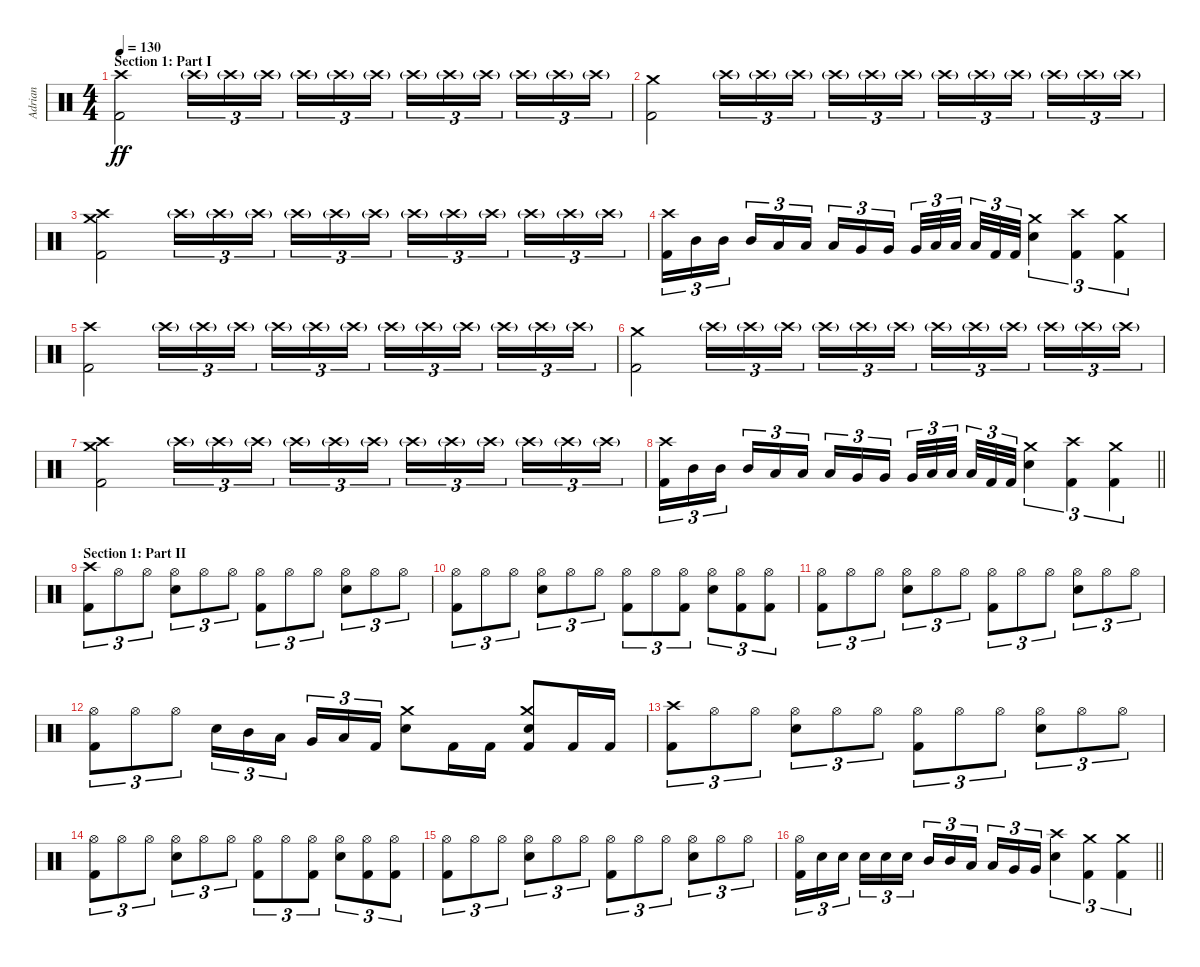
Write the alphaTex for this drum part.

\track ("Adrian" "Adrian") {instrument percussion}
\staff {score}
\articulation defaults
\ts (4 4)
\section ("" "Section 1: Part I")
\tempo 130
\clef neutral
\ks c
("Crash high (hit)" "Kick (hit) 2").2{dy ff} "Crash high (hit)"{g}.16{tu (3 2)} "Crash high (hit)"{g}.16{tu (3 2)} "Crash high (hit)"{g}.16{tu (3 2) beam splitsecondary} "Crash high (hit)"{g}.16{tu (3 2)} "Crash high (hit)"{g}.16{tu (3 2)} "Crash high (hit)"{g}.16{tu (3 2)} "Crash high (hit)"{g}.16{tu (3 2)} "Crash high (hit)"{g}.16{tu (3 2)} "Crash high (hit)"{g}.16{tu (3 2) beam splitsecondary} "Crash high (hit)"{g}.16{tu (3 2)} "Crash high (hit)"{g}.16{tu (3 2)} "Crash high (hit)"{g}.16{tu (3 2)} |
("Crash medium (hit)" "Kick (hit) 2").2 "Crash high (hit)"{g}.16{tu (3 2)} "Crash high (hit)"{g}.16{tu (3 2)} "Crash high (hit)"{g}.16{tu (3 2) beam splitsecondary} "Crash high (hit)"{g}.16{tu (3 2)} "Crash high (hit)"{g}.16{tu (3 2)} "Crash high (hit)"{g}.16{tu (3 2)} "Crash high (hit)"{g}.16{tu (3 2)} "Crash high (hit)"{g}.16{tu (3 2)} "Crash high (hit)"{g}.16{tu (3 2) beam splitsecondary} "Crash high (hit)"{g}.16{tu (3 2)} "Crash high (hit)"{g}.16{tu (3 2)} "Crash high (hit)"{g}.16{tu (3 2)} |
("Crash high (hit)" "Crash medium (hit)" "Kick (hit) 2").2 "Crash high (hit)"{g}.16{tu (3 2)} "Crash high (hit)"{g}.16{tu (3 2)} "Crash high (hit)"{g}.16{tu (3 2) beam splitsecondary} "Crash high (hit)"{g}.16{tu (3 2)} "Crash high (hit)"{g}.16{tu (3 2)} "Crash high (hit)"{g}.16{tu (3 2)} "Crash high (hit)"{g}.16{tu (3 2)} "Crash high (hit)"{g}.16{tu (3 2)} "Crash high (hit)"{g}.16{tu (3 2) beam splitsecondary} "Crash high (hit)"{g}.16{tu (3 2)} "Crash high (hit)"{g}.16{tu (3 2)} "Crash high (hit)"{g}.16{tu (3 2)} |
("Crash high (hit)" "Kick (hit) 2").16{tu (3 2)} "Mid Tom (hit)".16{tu (3 2)} "Mid Tom (hit)".16{tu (3 2) beam splitsecondary} "Mid Tom (hit)".16{tu (3 2)} "Low Tom (hit)".16{tu (3 2)} "Low Tom (hit)".16{tu (3 2)} "Low Tom (hit)".16{tu (3 2)} "Very Low Tom (hit)".16{tu (3 2)} "Very Low Tom (hit)".16{tu (3 2) beam splitsecondary} "Very Low Tom (hit)".32{tu (3 2)} "Low Floor Tom (hit)".32{tu (3 2)} "Low Floor Tom (hit)".32{tu (3 2) beam splitsecondary} "Low Floor Tom (hit)".32{tu (3 2)} "Kick (hit) 2".32{tu (3 2)} "Kick (hit) 2".32{tu (3 2)} ("Crash medium (hit)" "Electric Snare (hit)").4{tu (3 2)} ("Crash high (hit)" "Kick (hit) 2").4{tu (3 2)} ("Crash medium (hit)" "Kick (hit) 2").4{tu (3 2)} |
("Crash high (hit)" "Kick (hit) 2").2 "Crash high (hit)"{g}.16{tu (3 2)} "Crash high (hit)"{g}.16{tu (3 2)} "Crash high (hit)"{g}.16{tu (3 2) beam splitsecondary} "Crash high (hit)"{g}.16{tu (3 2)} "Crash high (hit)"{g}.16{tu (3 2)} "Crash high (hit)"{g}.16{tu (3 2)} "Crash high (hit)"{g}.16{tu (3 2)} "Crash high (hit)"{g}.16{tu (3 2)} "Crash high (hit)"{g}.16{tu (3 2) beam splitsecondary} "Crash high (hit)"{g}.16{tu (3 2)} "Crash high (hit)"{g}.16{tu (3 2)} "Crash high (hit)"{g}.16{tu (3 2)} |
("Crash medium (hit)" "Kick (hit) 2").2 "Crash high (hit)"{g}.16{tu (3 2)} "Crash high (hit)"{g}.16{tu (3 2)} "Crash high (hit)"{g}.16{tu (3 2) beam splitsecondary} "Crash high (hit)"{g}.16{tu (3 2)} "Crash high (hit)"{g}.16{tu (3 2)} "Crash high (hit)"{g}.16{tu (3 2)} "Crash high (hit)"{g}.16{tu (3 2)} "Crash high (hit)"{g}.16{tu (3 2)} "Crash high (hit)"{g}.16{tu (3 2) beam splitsecondary} "Crash high (hit)"{g}.16{tu (3 2)} "Crash high (hit)"{g}.16{tu (3 2)} "Crash high (hit)"{g}.16{tu (3 2)} |
("Crash high (hit)" "Crash medium (hit)" "Kick (hit) 2").2 "Crash high (hit)"{g}.16{tu (3 2)} "Crash high (hit)"{g}.16{tu (3 2)} "Crash high (hit)"{g}.16{tu (3 2) beam splitsecondary} "Crash high (hit)"{g}.16{tu (3 2)} "Crash high (hit)"{g}.16{tu (3 2)} "Crash high (hit)"{g}.16{tu (3 2)} "Crash high (hit)"{g}.16{tu (3 2)} "Crash high (hit)"{g}.16{tu (3 2)} "Crash high (hit)"{g}.16{tu (3 2) beam splitsecondary} "Crash high (hit)"{g}.16{tu (3 2)} "Crash high (hit)"{g}.16{tu (3 2)} "Crash high (hit)"{g}.16{tu (3 2)} |
\barLineRight lightlight
("Crash high (hit)" "Kick (hit) 2").16{tu (3 2)} "Mid Tom (hit)".16{tu (3 2)} "Mid Tom (hit)".16{tu (3 2) beam splitsecondary} "Mid Tom (hit)".16{tu (3 2)} "Low Tom (hit)".16{tu (3 2)} "Low Tom (hit)".16{tu (3 2)} "Low Tom (hit)".16{tu (3 2)} "Very Low Tom (hit)".16{tu (3 2)} "Very Low Tom (hit)".16{tu (3 2) beam splitsecondary} "Very Low Tom (hit)".32{tu (3 2)} "Low Floor Tom (hit)".32{tu (3 2)} "Low Floor Tom (hit)".32{tu (3 2) beam splitsecondary} "Low Floor Tom (hit)".32{tu (3 2)} "Kick (hit) 2".32{tu (3 2)} "Kick (hit) 2".32{tu (3 2)} ("Crash medium (hit)" "Electric Snare (hit)").4{tu (3 2)} ("Crash high (hit)" "Kick (hit) 2").4{tu (3 2)} ("Crash medium (hit)" "Kick (hit) 2").4{tu (3 2)} |
\section ("" "Section 1: Part II")
("Crash high (hit)" "Kick (hit) 2").8{tu (3 2)} "Hi-Hat (open)".8{tu (3 2)} "Hi-Hat (open)".8{tu (3 2)} ("Hi-Hat (open)" "Electric Snare (hit)").8{tu (3 2)} "Hi-Hat (open)".8{tu (3 2)} "Hi-Hat (open)".8{tu (3 2)} ("Hi-Hat (open)" "Kick (hit) 2").8{tu (3 2)} "Hi-Hat (open)".8{tu (3 2)} "Hi-Hat (open)".8{tu (3 2)} ("Hi-Hat (open)" "Electric Snare (hit)").8{tu (3 2)} "Hi-Hat (open)".8{tu (3 2)} "Hi-Hat (open)".8{tu (3 2)} |
("Hi-Hat (open)" "Kick (hit) 2").8{tu (3 2)} "Hi-Hat (open)".8{tu (3 2)} "Hi-Hat (open)".8{tu (3 2)} ("Hi-Hat (open)" "Electric Snare (hit)").8{tu (3 2)} "Hi-Hat (open)".8{tu (3 2)} "Hi-Hat (open)".8{tu (3 2)} ("Hi-Hat (open)" "Kick (hit) 2").8{tu (3 2)} "Hi-Hat (open)".8{tu (3 2)} ("Hi-Hat (open)" "Kick (hit) 2").8{tu (3 2)} ("Hi-Hat (open)" "Electric Snare (hit)").8{tu (3 2)} ("Hi-Hat (open)" "Kick (hit) 2").8{tu (3 2)} ("Hi-Hat (open)" "Kick (hit) 2").8{tu (3 2)} |
("Hi-Hat (open)" "Kick (hit) 2").8{tu (3 2)} "Hi-Hat (open)".8{tu (3 2)} "Hi-Hat (open)".8{tu (3 2)} ("Hi-Hat (open)" "Electric Snare (hit)").8{tu (3 2)} "Hi-Hat (open)".8{tu (3 2)} "Hi-Hat (open)".8{tu (3 2)} ("Hi-Hat (open)" "Kick (hit) 2").8{tu (3 2)} "Hi-Hat (open)".8{tu (3 2)} "Hi-Hat (open)".8{tu (3 2)} ("Hi-Hat (open)" "Electric Snare (hit)").8{tu (3 2)} "Hi-Hat (open)".8{tu (3 2)} "Hi-Hat (open)".8{tu (3 2)} |
("Hi-Hat (open)" "Kick (hit) 2").8{tu (3 2)} "Hi-Hat (open)".8{tu (3 2)} "Hi-Hat (open)".8{tu (3 2)} "Electric Snare (hit)".16{tu (3 2)} "Mid Tom (hit)".16{tu (3 2)} "Low Tom (hit)".16{tu (3 2) beam splitsecondary} "Very Low Tom (hit)".16{tu (3 2)} "Low Floor Tom (hit)".16{tu (3 2)} "Kick (hit) 2".16{tu (3 2)} ("Crash medium (hit)" "Electric Snare (hit)").8 "Kick (hit) 2".16 "Kick (hit) 2".16 ("Crash medium (hit)" "Electric Snare (hit)" "Kick (hit) 2").8 "Kick (hit) 2".16 "Kick (hit) 2".16 |
("Crash high (hit)" "Kick (hit) 2").8{tu (3 2)} "Hi-Hat (open)".8{tu (3 2)} "Hi-Hat (open)".8{tu (3 2)} ("Hi-Hat (open)" "Electric Snare (hit)").8{tu (3 2)} "Hi-Hat (open)".8{tu (3 2)} "Hi-Hat (open)".8{tu (3 2)} ("Hi-Hat (open)" "Kick (hit) 2").8{tu (3 2)} "Hi-Hat (open)".8{tu (3 2)} "Hi-Hat (open)".8{tu (3 2)} ("Hi-Hat (open)" "Electric Snare (hit)").8{tu (3 2)} "Hi-Hat (open)".8{tu (3 2)} "Hi-Hat (open)".8{tu (3 2)} |
("Hi-Hat (open)" "Kick (hit) 2").8{tu (3 2)} "Hi-Hat (open)".8{tu (3 2)} "Hi-Hat (open)".8{tu (3 2)} ("Hi-Hat (open)" "Electric Snare (hit)").8{tu (3 2)} "Hi-Hat (open)".8{tu (3 2)} "Hi-Hat (open)".8{tu (3 2)} ("Hi-Hat (open)" "Kick (hit) 2").8{tu (3 2)} "Hi-Hat (open)".8{tu (3 2)} ("Hi-Hat (open)" "Kick (hit) 2").8{tu (3 2)} ("Hi-Hat (open)" "Electric Snare (hit)").8{tu (3 2)} ("Hi-Hat (open)" "Kick (hit) 2").8{tu (3 2)} ("Hi-Hat (open)" "Kick (hit) 2").8{tu (3 2)} |
("Hi-Hat (open)" "Kick (hit) 2").8{tu (3 2)} "Hi-Hat (open)".8{tu (3 2)} "Hi-Hat (open)".8{tu (3 2)} ("Hi-Hat (open)" "Electric Snare (hit)").8{tu (3 2)} "Hi-Hat (open)".8{tu (3 2)} "Hi-Hat (open)".8{tu (3 2)} ("Hi-Hat (open)" "Kick (hit) 2").8{tu (3 2)} "Hi-Hat (open)".8{tu (3 2)} "Hi-Hat (open)".8{tu (3 2)} ("Hi-Hat (open)" "Electric Snare (hit)").8{tu (3 2)} "Hi-Hat (open)".8{tu (3 2)} "Hi-Hat (open)".8{tu (3 2)} |
\barLineRight lightlight
("Hi-Hat (open)" "Kick (hit) 2").16{tu (3 2)} "Electric Snare (hit)".16{tu (3 2)} "Electric Snare (hit)".16{tu (3 2) beam splitsecondary} "Electric Snare (hit)".16{tu (3 2)} "Electric Snare (hit)".16{tu (3 2)} "Electric Snare (hit)".16{tu (3 2)} "Mid Tom (hit)".16{tu (3 2)} "Mid Tom (hit)".16{tu (3 2)} "Low Tom (hit)".16{tu (3 2) beam splitsecondary} "Low Tom (hit)".16{tu (3 2)} "Very Low Tom (hit)".16{tu (3 2)} "Very Low Tom (hit)".16{tu (3 2)} ("Crash high (hit)" "Electric Snare (hit)").4{tu (3 2)} ("Crash medium (hit)" "Kick (hit) 2").4{tu (3 2)} ("Crash medium (hit)" "Kick (hit) 2").4{tu (3 2)}
